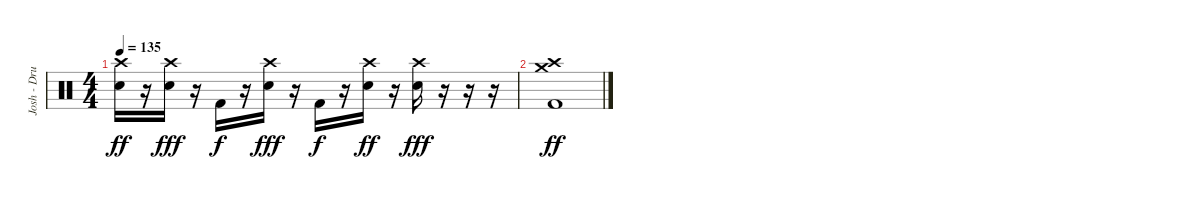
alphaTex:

\track ("Josh - Drums" "Josh - Dru") {instrument percussion}
\staff {score}
\articulation defaults
\ts (4 4)
\tempo 135
\clef neutral
\ks c
("Crash high (hit)" "Electric Snare (hit)").16{dy ff} r.16 ("Crash high (hit)" "Electric Snare (hit)").16{dy fff} r.16 "Kick (hit) 2".16{dy f} r.16 ("Crash high (hit)" "Electric Snare (hit)").16{dy fff} r.16 "Kick (hit) 2".16{dy f} r.16 ("Crash high (hit)" "Electric Snare (hit)").16{dy ff} r.16 ("Crash high (hit)" "Electric Snare (hit)").16{dy fff} r.16 r.16 r.16 |
("Crash high (hit)" "Crash medium (hit)" "Kick (hit) 2").1{dy ff}
